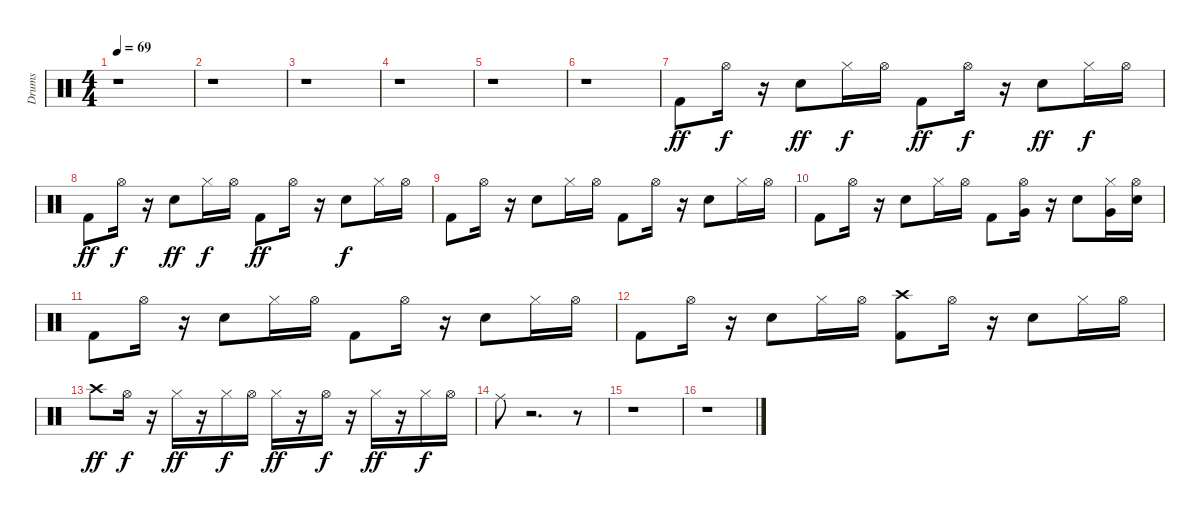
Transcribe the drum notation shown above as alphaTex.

\track ("Drums" "Drums") {instrument percussion}
\staff {score}
\articulation defaults
\ts (4 4)
\tempo 69
\clef neutral
\ks c
r.1{dy ff} |
r.1 |
r.1 |
r.1 |
r.1 |
r.1 |
"Kick (hit) 2".8 "Hi-Hat (open)".16{dy f} r.16 "Snare (hit) 2".8{dy ff} "Hi-Hat (closed)".16{dy f} "Hi-Hat (open)".16 "Kick (hit) 2".8{dy ff} "Hi-Hat (open)".16{dy f} r.16 "Snare (hit) 2".8{dy ff} "Hi-Hat (closed)".16{dy f} "Hi-Hat (open)".16 |
"Kick (hit) 2".8{dy ff} "Hi-Hat (open)".16{dy f} r.16 "Snare (hit) 2".8{dy ff} "Hi-Hat (closed)".16{dy f} "Hi-Hat (open)".16 "Kick (hit) 2".8{dy ff} "Hi-Hat (open)".16 r.16 "Snare (hit) 2".8{dy f} "Hi-Hat (closed)".16 "Hi-Hat (open)".16 |
"Kick (hit) 2".8 "Hi-Hat (open)".16 r.16 "Snare (hit) 2".8 "Hi-Hat (closed)".16 "Hi-Hat (open)".16 "Kick (hit) 2".8 "Hi-Hat (open)".16 r.16 "Snare (hit) 2".8 "Hi-Hat (closed)".16 "Hi-Hat (open)".16 |
"Kick (hit) 2".8 "Hi-Hat (open)".16 r.16 "Snare (hit) 2".8 "Hi-Hat (closed)".16 "Hi-Hat (open)".16 "Kick (hit) 2".8 ("Very Low Tom (hit)" "Hi-Hat (open)").16 r.16 "Snare (hit) 2".8 ("Very Low Tom (hit)" "Hi-Hat (closed)").16 ("Snare (hit) 2" "Hi-Hat (open)").16 |
"Kick (hit) 2".8 "Hi-Hat (open)".16 r.16 "Snare (hit) 2".8 "Hi-Hat (closed)".16 "Hi-Hat (open)".16 "Kick (hit) 2".8 "Hi-Hat (open)".16 r.16 "Snare (hit) 2".8 "Hi-Hat (closed)".16 "Hi-Hat (open)".16 |
"Kick (hit) 2".8 "Hi-Hat (open)".16 r.16 "Snare (hit) 2".8 "Hi-Hat (closed)".16 "Hi-Hat (open)".16 ("Crash high (hit)" "Kick (hit) 2").8 "Hi-Hat (open)".16 r.16 "Snare (hit) 2".8 "Hi-Hat (closed)".16 "Hi-Hat (open)".16 |
"Crash high (hit)".8{dy ff} "Hi-Hat (open)".16{dy f} r.16 "Hi-Hat (closed)".16{dy ff} r.16 "Hi-Hat (closed)".16{dy f} "Hi-Hat (open)".16 "Hi-Hat (closed)".16{dy ff} r.16 "Hi-Hat (open)".16{dy f} r.16 "Hi-Hat (closed)".16{dy ff} r.16 "Hi-Hat (closed)".16{dy f} "Hi-Hat (open)".16 |
"Ride (middle)".8 r.2{d} r.8 |
r.1 |
r.1
